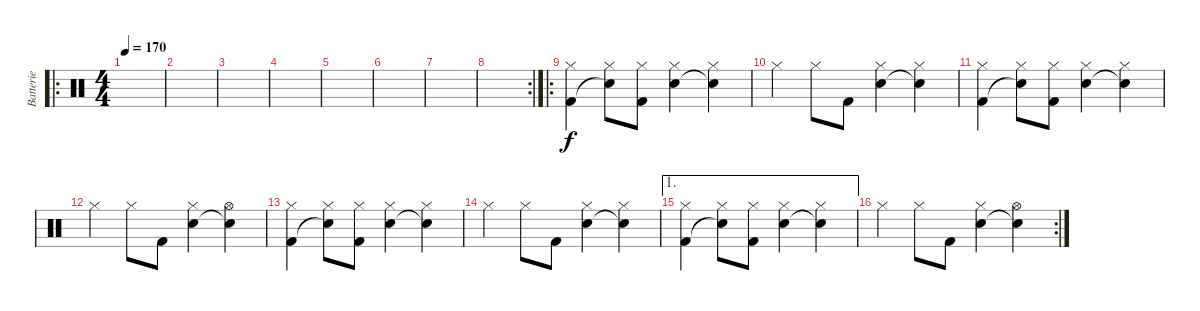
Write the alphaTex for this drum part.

\track ("Batterie" "Batterie") {instrument percussion}
\staff {score}
\articulation defaults
\ro
\ts (4 4)
\tempo 170
\clef neutral
\ks c
|
|
|
|
|
|
|
\rc 2
|
\ro
("Kick (hit) 2" "Hi-Hat (closed)").4 ("Snare (hit)"{t} "Hi-Hat (closed)").8 ("Kick (hit) 2" "Hi-Hat (closed)").8 ("Snare (hit) 2" "Hi-Hat (closed)").4 ("Snare (hit)"{t} "Hi-Hat (closed)").4 |
"Hi-Hat (closed)".4 "Hi-Hat (closed)".8 "Kick (hit) 2".8 ("Snare (hit) 2" "Hi-Hat (closed)").4 ("Snare (hit)"{t} "Hi-Hat (closed)").4 |
("Kick (hit) 2" "Hi-Hat (closed)").4 ("Snare (hit)"{t} "Hi-Hat (closed)").8 ("Kick (hit) 2" "Hi-Hat (closed)").8 ("Snare (hit) 2" "Hi-Hat (closed)").4 ("Snare (hit)"{t} "Hi-Hat (closed)").4 |
"Hi-Hat (closed)".4 "Hi-Hat (closed)".8 "Kick (hit) 2".8 ("Snare (hit) 2" "Hi-Hat (closed)").4 ("Snare (hit)"{t} "Hi-Hat (open)").4 |
("Kick (hit) 2" "Hi-Hat (closed)").4 ("Snare (hit)"{t} "Hi-Hat (closed)").8 ("Kick (hit) 2" "Hi-Hat (closed)").8 ("Snare (hit) 2" "Hi-Hat (closed)").4 ("Snare (hit)"{t} "Hi-Hat (closed)").4 |
"Hi-Hat (closed)".4 "Hi-Hat (closed)".8 "Kick (hit) 2".8 ("Snare (hit) 2" "Hi-Hat (closed)").4 ("Snare (hit)"{t} "Hi-Hat (closed)").4 |
\ae 1
("Kick (hit) 2" "Hi-Hat (closed)").4 ("Snare (hit)"{t} "Hi-Hat (closed)").8 ("Kick (hit) 2" "Hi-Hat (closed)").8 ("Snare (hit) 2" "Hi-Hat (closed)").4 ("Snare (hit)"{t} "Hi-Hat (closed)").4 |
\rc 2 "Hi-Hat (closed)".4 "Hi-Hat (closed)".8 "Kick (hit) 2".8
("Snare (hit) 2" "Hi-Hat (closed)").4 ("Snare (hit)"{t} "Hi-Hat (open)").4
